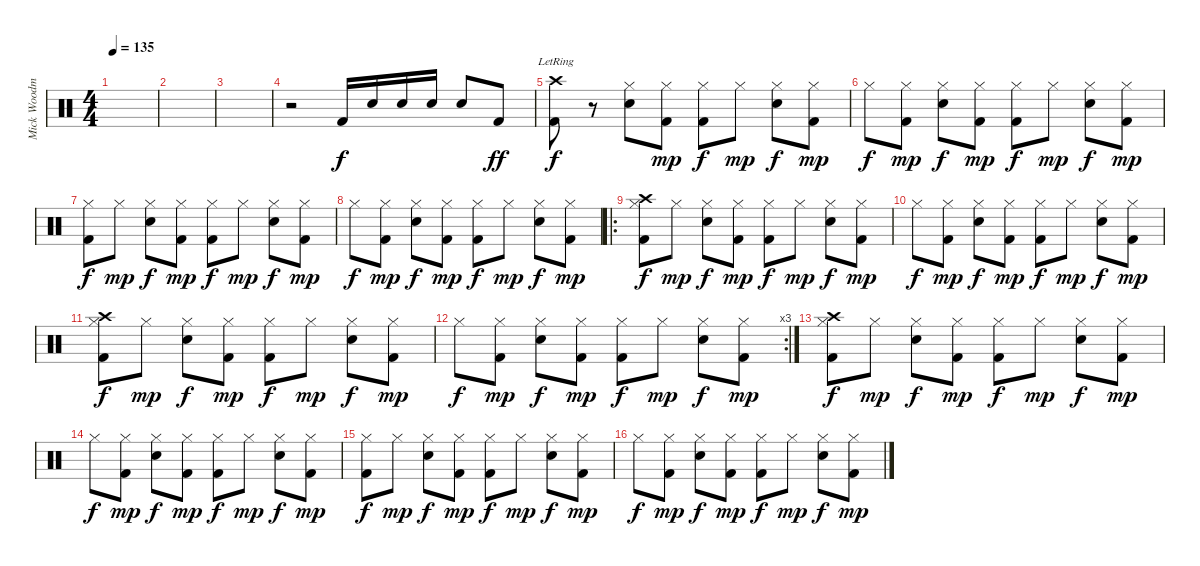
\track ("Mick Woodmansey - Drums" "Mick Woodm") {instrument percussion}
\staff {score}
\articulation defaults
\ts (4 4)
\tempo 135
\clef neutral
\ks c
|
|
|
r.2 "Kick (hit) 2".16 "Electric Snare (hit)".16{dy f} "Electric Snare (hit)".16 "Electric Snare (hit)".16 "Electric Snare (hit)".8 "Kick (hit) 2".8{dy ff} |
("Crash high (hit)"{lr} "Kick (hit) 2").8{dy f} r.8 ("Hi-Hat (closed)" "Electric Snare (hit)").8 ("Hi-Hat (closed)" "Kick (hit) 2").8{dy mp} ("Hi-Hat (closed)" "Kick (hit) 2").8{dy f} "Hi-Hat (closed)".8{dy mp} ("Hi-Hat (closed)" "Electric Snare (hit)").8{dy f} ("Hi-Hat (closed)" "Kick (hit) 2").8{dy mp} |
"Hi-Hat (closed)".8{dy f} ("Hi-Hat (closed)" "Kick (hit) 2").8{dy mp} ("Hi-Hat (closed)" "Electric Snare (hit)").8{dy f} ("Hi-Hat (closed)" "Kick (hit) 2").8{dy mp} ("Hi-Hat (closed)" "Kick (hit) 2").8{dy f} "Hi-Hat (closed)".8{dy mp} ("Hi-Hat (closed)" "Electric Snare (hit)").8{dy f} ("Hi-Hat (closed)" "Kick (hit) 2").8{dy mp} |
("Hi-Hat (closed)" "Kick (hit) 2").8{dy f} "Hi-Hat (closed)".8{dy mp} ("Hi-Hat (closed)" "Electric Snare (hit)").8{dy f} ("Hi-Hat (closed)" "Kick (hit) 2").8{dy mp} ("Hi-Hat (closed)" "Kick (hit) 2").8{dy f} "Hi-Hat (closed)".8{dy mp} ("Hi-Hat (closed)" "Electric Snare (hit)").8{dy f} ("Hi-Hat (closed)" "Kick (hit) 2").8{dy mp} |
"Hi-Hat (closed)".8{dy f} ("Hi-Hat (closed)" "Kick (hit) 2").8{dy mp} ("Hi-Hat (closed)" "Electric Snare (hit)").8{dy f} ("Hi-Hat (closed)" "Kick (hit) 2").8{dy mp} ("Hi-Hat (closed)" "Kick (hit) 2").8{dy f} "Hi-Hat (closed)".8{dy mp} ("Hi-Hat (closed)" "Electric Snare (hit)").8{dy f} ("Hi-Hat (closed)" "Kick (hit) 2").8{dy mp} |
\ro
("Crash high (hit)" "Hi-Hat (closed)" "Kick (hit) 2").8{dy f} "Hi-Hat (closed)".8{dy mp} ("Hi-Hat (closed)" "Electric Snare (hit)").8{dy f} ("Hi-Hat (closed)" "Kick (hit) 2").8{dy mp} ("Hi-Hat (closed)" "Kick (hit) 2").8{dy f} "Hi-Hat (closed)".8{dy mp} ("Hi-Hat (closed)" "Electric Snare (hit)").8{dy f} ("Hi-Hat (closed)" "Kick (hit) 2").8{dy mp} |
"Hi-Hat (closed)".8{dy f} ("Hi-Hat (closed)" "Kick (hit) 2").8{dy mp} ("Hi-Hat (closed)" "Electric Snare (hit)").8{dy f} ("Hi-Hat (closed)" "Kick (hit) 2").8{dy mp} ("Hi-Hat (closed)" "Kick (hit) 2").8{dy f} "Hi-Hat (closed)".8{dy mp} ("Hi-Hat (closed)" "Electric Snare (hit)").8{dy f} ("Hi-Hat (closed)" "Kick (hit) 2").8{dy mp} |
("Crash high (hit)" "Hi-Hat (closed)" "Kick (hit) 2").8{dy f} "Hi-Hat (closed)".8{dy mp} ("Hi-Hat (closed)" "Electric Snare (hit)").8{dy f} ("Hi-Hat (closed)" "Kick (hit) 2").8{dy mp} ("Hi-Hat (closed)" "Kick (hit) 2").8{dy f} "Hi-Hat (closed)".8{dy mp} ("Hi-Hat (closed)" "Electric Snare (hit)").8{dy f} ("Hi-Hat (closed)" "Kick (hit) 2").8{dy mp} |
\rc 3 "Hi-Hat (closed)".8{dy f}
("Hi-Hat (closed)" "Kick (hit) 2").8{dy mp} ("Hi-Hat (closed)" "Electric Snare (hit)").8{dy f} ("Hi-Hat (closed)" "Kick (hit) 2").8{dy mp} ("Hi-Hat (closed)" "Kick (hit) 2").8{dy f} "Hi-Hat (closed)".8{dy mp} ("Hi-Hat (closed)" "Electric Snare (hit)").8{dy f} ("Hi-Hat (closed)" "Kick (hit) 2").8{dy mp} |
("Crash high (hit)" "Hi-Hat (closed)" "Kick (hit) 2").8{dy f} "Hi-Hat (closed)".8{dy mp} ("Hi-Hat (closed)" "Electric Snare (hit)").8{dy f} ("Hi-Hat (closed)" "Kick (hit) 2").8{dy mp} ("Hi-Hat (closed)" "Kick (hit) 2").8{dy f} "Hi-Hat (closed)".8{dy mp} ("Hi-Hat (closed)" "Electric Snare (hit)").8{dy f} ("Hi-Hat (closed)" "Kick (hit) 2").8{dy mp} |
"Hi-Hat (closed)".8{dy f} ("Hi-Hat (closed)" "Kick (hit) 2").8{dy mp} ("Hi-Hat (closed)" "Electric Snare (hit)").8{dy f} ("Hi-Hat (closed)" "Kick (hit) 2").8{dy mp} ("Hi-Hat (closed)" "Kick (hit) 2").8{dy f} "Hi-Hat (closed)".8{dy mp} ("Hi-Hat (closed)" "Electric Snare (hit)").8{dy f} ("Hi-Hat (closed)" "Kick (hit) 2").8{dy mp} |
("Hi-Hat (closed)" "Kick (hit) 2").8{dy f} "Hi-Hat (closed)".8{dy mp} ("Hi-Hat (closed)" "Electric Snare (hit)").8{dy f} ("Hi-Hat (closed)" "Kick (hit) 2").8{dy mp} ("Hi-Hat (closed)" "Kick (hit) 2").8{dy f} "Hi-Hat (closed)".8{dy mp} ("Hi-Hat (closed)" "Electric Snare (hit)").8{dy f} ("Hi-Hat (closed)" "Kick (hit) 2").8{dy mp} |
"Hi-Hat (closed)".8{dy f} ("Hi-Hat (closed)" "Kick (hit) 2").8{dy mp} ("Hi-Hat (closed)" "Electric Snare (hit)").8{dy f} ("Hi-Hat (closed)" "Kick (hit) 2").8{dy mp} ("Hi-Hat (closed)" "Kick (hit) 2").8{dy f} "Hi-Hat (closed)".8{dy mp} ("Hi-Hat (closed)" "Electric Snare (hit)").8{dy f} ("Hi-Hat (closed)" "Kick (hit) 2").8{dy mp}
